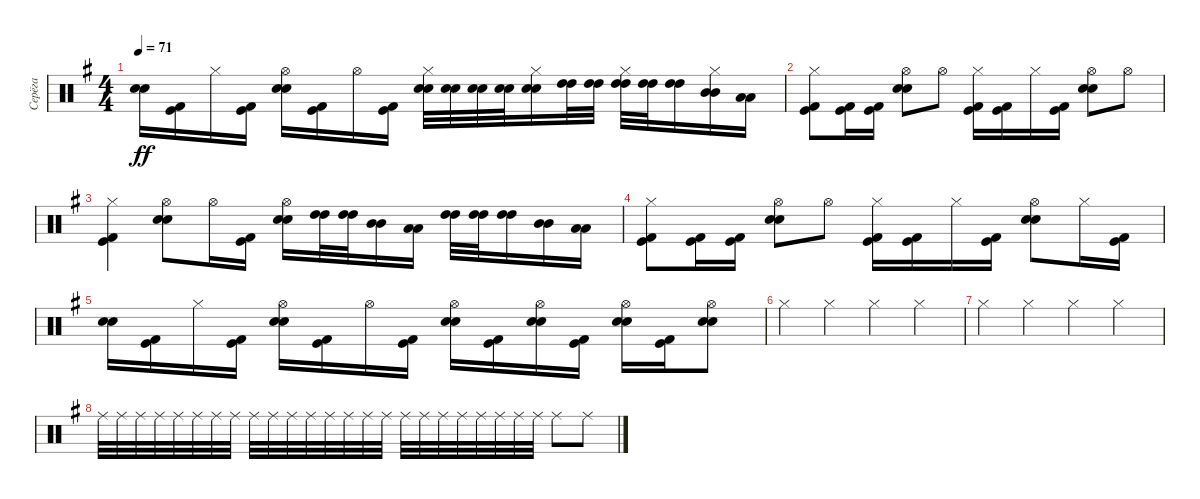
\track ("Серёга" "Серёга") {instrument percussion}
\staff {score}
\articulation defaults
\ts (4 4)
\tempo 71
\clef neutral
\ks eminor
("Electric Snare (hit)" "Snare (hit) 2").16{dy ff} ("Kick (hit)" "Kick (hit) 2").16 "Hi-Hat (closed)".16 ("Kick (hit)" "Kick (hit) 2").16 ("Hi-Hat (open)" "Electric Snare (hit)" "Snare (hit) 2").16 ("Kick (hit)" "Kick (hit) 2").16 "Hi-Hat (open)".16 ("Kick (hit)" "Kick (hit) 2").16 ("Hi-Hat (closed)" "Snare (hit) 2" "Electric Snare (hit)").32 ("Snare (hit) 2" "Electric Snare (hit)").32 ("Snare (hit) 2" "Electric Snare (hit)").32 ("Snare (hit) 2" "Electric Snare (hit)").32 ("Hi-Hat (closed)" "Snare (hit) 2" "Electric Snare (hit)").16 ("High Tom (hit)" "High Tom (hit)").32 ("High Tom (hit)" "High Tom (hit)").32 ("Hi-Hat (closed)" "High Tom (hit)" "High Tom (hit)").32 ("High Tom (hit)" "High Tom (hit)").32 ("High Tom (hit)" "High Tom (hit)").16 ("Hi-Hat (closed)" "Mid Tom (hit)" "Mid Tom (hit)").16 ("Low Tom (hit)" "Low Tom (hit)").16 |
("Hi-Hat (closed)" "Kick (hit)" "Kick (hit) 2").8 ("Kick (hit)" "Kick (hit) 2").16 ("Kick (hit)" "Kick (hit) 2").16 ("Hi-Hat (open)" "Electric Snare (hit)" "Snare (hit) 2").8 "Hi-Hat (open)".8 ("Hi-Hat (closed)" "Kick (hit)" "Kick (hit) 2").16 ("Kick (hit)" "Kick (hit) 2").16 "Hi-Hat (closed)".16 ("Kick (hit)" "Kick (hit) 2").16 ("Hi-Hat (open)" "Electric Snare (hit)" "Snare (hit) 2").8 "Hi-Hat (open)".8 |
("Hi-Hat (closed)" "Kick (hit)" "Kick (hit) 2").4 ("Hi-Hat (open)" "Electric Snare (hit)" "Snare (hit) 2").8 "Hi-Hat (open)".16 ("Kick (hit)" "Kick (hit) 2").16 ("Hi-Hat (open)" "Snare (hit) 2" "Electric Snare (hit)").16 ("High Tom (hit)" "High Tom (hit)").32 ("High Tom (hit)" "High Tom (hit)").32 ("Mid Tom (hit)" "Mid Tom (hit)").16 ("Low Tom (hit)" "Low Tom (hit)").16 ("High Tom (hit)" "High Tom (hit)").32 ("High Tom (hit)" "High Tom (hit)").32 ("High Tom (hit)" "High Tom (hit)").16 ("Mid Tom (hit)" "Mid Tom (hit)").16 ("Low Tom (hit)" "Low Tom (hit)").16 |
("Hi-Hat (closed)" "Kick (hit)" "Kick (hit) 2").8 ("Kick (hit)" "Kick (hit) 2").16 ("Kick (hit)" "Kick (hit) 2").16 ("Hi-Hat (open)" "Electric Snare (hit)" "Snare (hit) 2").8 "Hi-Hat (open)".8 ("Hi-Hat (closed)" "Kick (hit)" "Kick (hit) 2").16 ("Kick (hit)" "Kick (hit) 2").16 "Hi-Hat (closed)".16 ("Kick (hit)" "Kick (hit) 2").16 ("Hi-Hat (open)" "Electric Snare (hit)" "Snare (hit) 2").8 "Hi-Hat (closed)".16 ("Kick (hit)" "Kick (hit) 2").16 |
("Electric Snare (hit)" "Snare (hit) 2").16 ("Kick (hit)" "Kick (hit) 2").16 "Hi-Hat (closed)".16 ("Kick (hit)" "Kick (hit) 2").16 ("Hi-Hat (open)" "Snare (hit) 2" "Electric Snare (hit)").16 ("Kick (hit)" "Kick (hit) 2").16 "Hi-Hat (open)".16 ("Kick (hit)" "Kick (hit) 2").16 ("Hi-Hat (open)" "Electric Snare (hit)" "Snare (hit) 2").16 ("Kick (hit)" "Kick (hit) 2").16 ("Hi-Hat (open)" "Electric Snare (hit)" "Snare (hit) 2").16 ("Kick (hit)" "Kick (hit) 2").16 ("Hi-Hat (open)" "Electric Snare (hit)" "Snare (hit) 2").16 ("Kick (hit)" "Kick (hit) 2").16 ("Hi-Hat (open)" "Electric Snare (hit)" "Snare (hit) 2").8 |
"Hi-Hat (closed)".4 "Hi-Hat (closed)".4 "Hi-Hat (closed)".4 "Hi-Hat (closed)".4 |
"Hi-Hat (closed)".4 "Hi-Hat (closed)".4 "Hi-Hat (closed)".4 "Hi-Hat (closed)".4 |
"Ride (middle)".32{volume 0} "Ride (middle)".32 "Ride (middle)".32 "Ride (middle)".32 "Ride (middle)".32 "Ride (middle)".32 "Ride (middle)".32 "Ride (middle)".32 "Ride (middle)".32 "Ride (middle)".32 "Ride (middle)".32 "Ride (middle)".32 "Ride (middle)".32 "Ride (middle)".32 "Ride (middle)".32 "Ride (middle)".32 "Ride (middle)".32 "Ride (middle)".32 "Ride (middle)".32 "Ride (middle)".32 "Ride (middle)".32 "Ride (middle)".32 "Ride (middle)".32 "Ride (middle)".32 "Ride (middle)".8 "Ride (middle)".8
